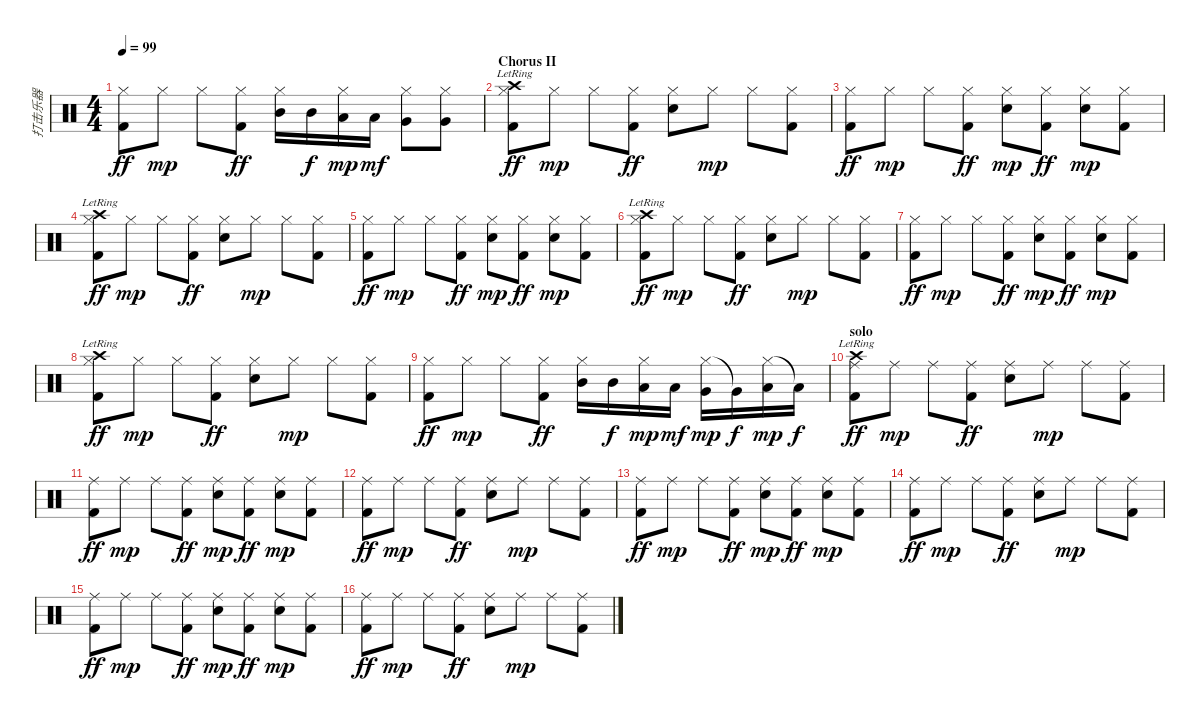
\track ("打击乐器" "打击乐器") {instrument percussion}
\staff {score}
\articulation defaults
\ts (4 4)
\tempo 99
\clef neutral
\ks c
("Hi-Hat (closed)" "Kick (hit) 2").8{dy ff} "Hi-Hat (closed)".8{dy mp} "Hi-Hat (closed)".8 ("Hi-Hat (closed)" "Kick (hit) 2").8{dy ff} ("Hi-Hat (closed)" "Mid Tom (hit)").16 "Mid Tom (hit)".16{dy f} ("Hi-Hat (closed)" "Low Tom (hit)").16{dy mp} "Low Tom (hit)".16{dy mf} ("Hi-Hat (closed)" "Very Low Tom (hit)").8 ("Hi-Hat (closed)" "Very Low Tom (hit)").8 |
\section ("" "Chorus II")
("Hi-Hat (closed)" "Crash high (hit)"{lr} "Kick (hit) 2").8{dy ff} "Hi-Hat (closed)".8{dy mp} "Hi-Hat (closed)".8 ("Hi-Hat (closed)" "Kick (hit) 2").8{dy ff} ("Hi-Hat (closed)" "Snare (hit) 2").8 "Hi-Hat (closed)".8{dy mp} "Hi-Hat (closed)".8 ("Hi-Hat (closed)" "Kick (hit) 2").8 |
("Hi-Hat (closed)" "Kick (hit) 2").8{dy ff} "Hi-Hat (closed)".8{dy mp} "Hi-Hat (closed)".8 ("Hi-Hat (closed)" "Kick (hit) 2").8{dy ff} ("Hi-Hat (closed)" "Snare (hit) 2").8{dy mp} ("Hi-Hat (closed)" "Kick (hit) 2").8{dy ff} ("Hi-Hat (closed)" "Snare (hit) 2").8{dy mp} ("Hi-Hat (closed)" "Kick (hit) 2").8 |
("Hi-Hat (closed)" "Crash high (hit)"{lr} "Kick (hit) 2").8{dy ff} "Hi-Hat (closed)".8{dy mp} "Hi-Hat (closed)".8 ("Hi-Hat (closed)" "Kick (hit) 2").8{dy ff} ("Hi-Hat (closed)" "Snare (hit) 2").8 "Hi-Hat (closed)".8{dy mp} "Hi-Hat (closed)".8 ("Hi-Hat (closed)" "Kick (hit) 2").8 |
("Hi-Hat (closed)" "Kick (hit) 2").8{dy ff} "Hi-Hat (closed)".8{dy mp} "Hi-Hat (closed)".8 ("Hi-Hat (closed)" "Kick (hit) 2").8{dy ff} ("Hi-Hat (closed)" "Snare (hit) 2").8{dy mp} ("Hi-Hat (closed)" "Kick (hit) 2").8{dy ff} ("Hi-Hat (closed)" "Snare (hit) 2").8{dy mp} ("Hi-Hat (closed)" "Kick (hit) 2").8 |
("Hi-Hat (closed)" "Crash high (hit)"{lr} "Kick (hit) 2").8{dy ff} "Hi-Hat (closed)".8{dy mp} "Hi-Hat (closed)".8 ("Hi-Hat (closed)" "Kick (hit) 2").8{dy ff} ("Hi-Hat (closed)" "Snare (hit) 2").8 "Hi-Hat (closed)".8{dy mp} "Hi-Hat (closed)".8 ("Hi-Hat (closed)" "Kick (hit) 2").8 |
("Hi-Hat (closed)" "Kick (hit) 2").8{dy ff} "Hi-Hat (closed)".8{dy mp} "Hi-Hat (closed)".8 ("Hi-Hat (closed)" "Kick (hit) 2").8{dy ff} ("Hi-Hat (closed)" "Snare (hit) 2").8{dy mp} ("Hi-Hat (closed)" "Kick (hit) 2").8{dy ff} ("Hi-Hat (closed)" "Snare (hit) 2").8{dy mp} ("Hi-Hat (closed)" "Kick (hit) 2").8 |
("Hi-Hat (closed)" "Crash high (hit)"{lr} "Kick (hit) 2").8{dy ff} "Hi-Hat (closed)".8{dy mp} "Hi-Hat (closed)".8 ("Hi-Hat (closed)" "Kick (hit) 2").8{dy ff} ("Hi-Hat (closed)" "Snare (hit) 2").8 "Hi-Hat (closed)".8{dy mp} "Hi-Hat (closed)".8 ("Hi-Hat (closed)" "Kick (hit) 2").8 |
("Hi-Hat (closed)" "Kick (hit) 2").8{dy ff} "Hi-Hat (closed)".8{dy mp} "Hi-Hat (closed)".8 ("Hi-Hat (closed)" "Kick (hit) 2").8{dy ff} ("Hi-Hat (closed)" "Mid Tom (hit)").16 "Mid Tom (hit)".16{dy f} ("Hi-Hat (closed)" "Low Tom (hit)").16{dy mp} "Low Tom (hit)".16{dy mf} ("Hi-Hat (closed)" "Very Low Tom (hit)").16{dy mp} "Very Low Tom (hit)"{t}.16{dy f} ("Hi-Hat (closed)" "Low Tom (hit)").16{dy mp} "Low Floor Tom (hit)"{t}.16{dy f} |
\section ("" "solo")
("Ride (middle)" "Crash high (hit)"{lr} "Kick (hit) 2").8{dy ff} "Ride (middle)".8{dy mp} "Ride (middle)".8 ("Ride (middle)" "Kick (hit) 2").8{dy ff} ("Ride (middle)" "Snare (hit) 2").8 "Ride (middle)".8{dy mp} "Ride (middle)".8 ("Ride (middle)" "Kick (hit) 2").8 |
("Ride (middle)" "Kick (hit) 2").8{dy ff} "Ride (middle)".8{dy mp} "Ride (middle)".8 ("Ride (middle)" "Kick (hit) 2").8{dy ff} ("Ride (middle)" "Snare (hit) 2").8{dy mp} ("Ride (middle)" "Kick (hit) 2").8{dy ff} ("Ride (middle)" "Snare (hit) 2").8{dy mp} ("Ride (middle)" "Kick (hit) 2").8 |
("Ride (middle)" "Kick (hit) 2").8{dy ff} "Ride (middle)".8{dy mp} "Ride (middle)".8 ("Ride (middle)" "Kick (hit) 2").8{dy ff} ("Ride (middle)" "Snare (hit) 2").8 "Ride (middle)".8{dy mp} "Ride (middle)".8 ("Ride (middle)" "Kick (hit) 2").8 |
("Ride (middle)" "Kick (hit) 2").8{dy ff} "Ride (middle)".8{dy mp} "Ride (middle)".8 ("Ride (middle)" "Kick (hit) 2").8{dy ff} ("Ride (middle)" "Snare (hit) 2").8{dy mp} ("Ride (middle)" "Kick (hit) 2").8{dy ff} ("Ride (middle)" "Snare (hit) 2").8{dy mp} ("Ride (middle)" "Kick (hit) 2").8 |
("Ride (middle)" "Kick (hit) 2").8{dy ff} "Ride (middle)".8{dy mp} "Ride (middle)".8 ("Ride (middle)" "Kick (hit) 2").8{dy ff} ("Ride (middle)" "Snare (hit) 2").8 "Ride (middle)".8{dy mp} "Ride (middle)".8 ("Ride (middle)" "Kick (hit) 2").8 |
("Ride (middle)" "Kick (hit) 2").8{dy ff} "Ride (middle)".8{dy mp} "Ride (middle)".8 ("Ride (middle)" "Kick (hit) 2").8{dy ff} ("Ride (middle)" "Snare (hit) 2").8{dy mp} ("Ride (middle)" "Kick (hit) 2").8{dy ff} ("Ride (middle)" "Snare (hit) 2").8{dy mp} ("Ride (middle)" "Kick (hit) 2").8 |
("Ride (middle)" "Kick (hit) 2").8{dy ff} "Ride (middle)".8{dy mp} "Ride (middle)".8 ("Ride (middle)" "Kick (hit) 2").8{dy ff} ("Ride (middle)" "Snare (hit) 2").8 "Ride (middle)".8{dy mp} "Ride (middle)".8 ("Ride (middle)" "Kick (hit) 2").8
